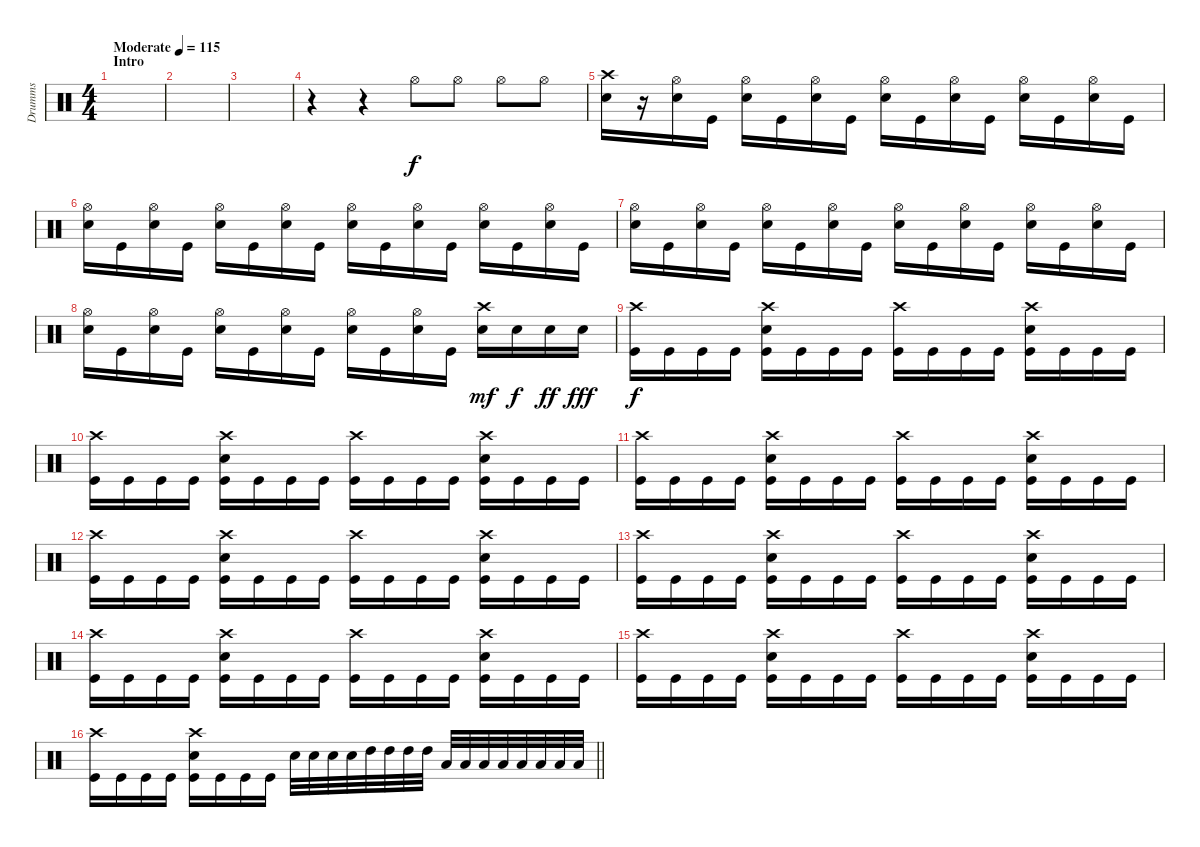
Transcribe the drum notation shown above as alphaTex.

\track ("Drumms" "Drumms") {instrument percussion}
\staff {score}
\articulation defaults
\ts (4 4)
\section ("" "Intro")
\tempo (115 "Moderate")
\clef neutral
\ks c
|
|
|
r.4 r.4 "Hi-Hat (open)".8 "Hi-Hat (open)".8 "Hi-Hat (open)".8 "Hi-Hat (open)".8 |
("Crash high (hit)" "Snare (hit) 2").16 r.16 ("Hi-Hat (open)" "Snare (hit) 2").16 "Kick (hit)".16 ("Hi-Hat (open)" "Snare (hit) 2").16 "Kick (hit)".16 ("Hi-Hat (open)" "Snare (hit) 2").16 "Kick (hit)".16 ("Hi-Hat (open)" "Snare (hit) 2").16 "Kick (hit)".16 ("Hi-Hat (open)" "Snare (hit) 2").16 "Kick (hit)".16 ("Hi-Hat (open)" "Snare (hit) 2").16 "Kick (hit)".16 ("Hi-Hat (open)" "Snare (hit) 2").16 "Kick (hit)".16 |
("Hi-Hat (open)" "Snare (hit) 2").16 "Kick (hit)".16 ("Hi-Hat (open)" "Snare (hit) 2").16 "Kick (hit)".16 ("Hi-Hat (open)" "Snare (hit) 2").16 "Kick (hit)".16 ("Hi-Hat (open)" "Snare (hit) 2").16 "Kick (hit)".16 ("Hi-Hat (open)" "Snare (hit) 2").16 "Kick (hit)".16 ("Hi-Hat (open)" "Snare (hit) 2").16 "Kick (hit)".16 ("Hi-Hat (open)" "Snare (hit) 2").16 "Kick (hit)".16 ("Hi-Hat (open)" "Snare (hit) 2").16 "Kick (hit)".16 |
("Hi-Hat (open)" "Snare (hit) 2").16 "Kick (hit)".16 ("Hi-Hat (open)" "Snare (hit) 2").16 "Kick (hit)".16 ("Hi-Hat (open)" "Snare (hit) 2").16 "Kick (hit)".16 ("Hi-Hat (open)" "Snare (hit) 2").16 "Kick (hit)".16 ("Hi-Hat (open)" "Snare (hit) 2").16 "Kick (hit)".16 ("Hi-Hat (open)" "Snare (hit) 2").16 "Kick (hit)".16 ("Hi-Hat (open)" "Snare (hit) 2").16 "Kick (hit)".16 ("Hi-Hat (open)" "Snare (hit) 2").16 "Kick (hit)".16 |
("Hi-Hat (open)" "Snare (hit) 2").16 "Kick (hit)".16 ("Hi-Hat (open)" "Snare (hit) 2").16 "Kick (hit)".16 ("Hi-Hat (open)" "Snare (hit) 2").16 "Kick (hit)".16 ("Hi-Hat (open)" "Snare (hit) 2").16 "Kick (hit)".16 ("Hi-Hat (open)" "Snare (hit) 2").16 "Kick (hit)".16 ("Hi-Hat (open)" "Snare (hit) 2").16 "Kick (hit)".16 ("Crash high (hit)" "Snare (hit) 2").16{dy mf} "Snare (hit) 2".16{dy f} "Snare (hit) 2".16{dy ff} "Snare (hit) 2".16{dy fff} |
("Crash high (hit)" "Kick (hit)").16{dy f} "Kick (hit)".16 "Kick (hit)".16 "Kick (hit)".16 ("Crash high (hit)" "Snare (hit) 2" "Kick (hit)").16 "Kick (hit)".16 "Kick (hit)".16 "Kick (hit)".16 ("Crash high (hit)" "Kick (hit)").16 "Kick (hit)".16 "Kick (hit)".16 "Kick (hit)".16 ("Crash high (hit)" "Snare (hit) 2" "Kick (hit)").16 "Kick (hit)".16 "Kick (hit)".16 "Kick (hit)".16 |
("Crash high (hit)" "Kick (hit)").16 "Kick (hit)".16 "Kick (hit)".16 "Kick (hit)".16 ("Crash high (hit)" "Snare (hit) 2" "Kick (hit)").16 "Kick (hit)".16 "Kick (hit)".16 "Kick (hit)".16 ("Crash high (hit)" "Kick (hit)").16 "Kick (hit)".16 "Kick (hit)".16 "Kick (hit)".16 ("Crash high (hit)" "Snare (hit) 2" "Kick (hit)").16 "Kick (hit)".16 "Kick (hit)".16 "Kick (hit)".16 |
("Crash high (hit)" "Kick (hit)").16 "Kick (hit)".16 "Kick (hit)".16 "Kick (hit)".16 ("Crash high (hit)" "Snare (hit) 2" "Kick (hit)").16 "Kick (hit)".16 "Kick (hit)".16 "Kick (hit)".16 ("Crash high (hit)" "Kick (hit)").16 "Kick (hit)".16 "Kick (hit)".16 "Kick (hit)".16 ("Crash high (hit)" "Snare (hit) 2" "Kick (hit)").16 "Kick (hit)".16 "Kick (hit)".16 "Kick (hit)".16 |
("Crash high (hit)" "Kick (hit)").16 "Kick (hit)".16 "Kick (hit)".16 "Kick (hit)".16 ("Crash high (hit)" "Snare (hit) 2" "Kick (hit)").16 "Kick (hit)".16 "Kick (hit)".16 "Kick (hit)".16 ("Crash high (hit)" "Kick (hit)").16 "Kick (hit)".16 "Kick (hit)".16 "Kick (hit)".16 ("Crash high (hit)" "Snare (hit) 2" "Kick (hit)").16 "Kick (hit)".16 "Kick (hit)".16 "Kick (hit)".16 |
("Crash high (hit)" "Kick (hit)").16 "Kick (hit)".16 "Kick (hit)".16 "Kick (hit)".16 ("Crash high (hit)" "Snare (hit) 2" "Kick (hit)").16 "Kick (hit)".16 "Kick (hit)".16 "Kick (hit)".16 ("Crash high (hit)" "Kick (hit)").16 "Kick (hit)".16 "Kick (hit)".16 "Kick (hit)".16 ("Crash high (hit)" "Snare (hit) 2" "Kick (hit)").16 "Kick (hit)".16 "Kick (hit)".16 "Kick (hit)".16 |
("Crash high (hit)" "Kick (hit)").16 "Kick (hit)".16 "Kick (hit)".16 "Kick (hit)".16 ("Crash high (hit)" "Snare (hit) 2" "Kick (hit)").16 "Kick (hit)".16 "Kick (hit)".16 "Kick (hit)".16 ("Crash high (hit)" "Kick (hit)").16 "Kick (hit)".16 "Kick (hit)".16 "Kick (hit)".16 ("Crash high (hit)" "Snare (hit) 2" "Kick (hit)").16 "Kick (hit)".16 "Kick (hit)".16 "Kick (hit)".16 |
("Crash high (hit)" "Kick (hit)").16 "Kick (hit)".16 "Kick (hit)".16 "Kick (hit)".16 ("Crash high (hit)" "Snare (hit) 2" "Kick (hit)").16 "Kick (hit)".16 "Kick (hit)".16 "Kick (hit)".16 ("Crash high (hit)" "Kick (hit)").16 "Kick (hit)".16 "Kick (hit)".16 "Kick (hit)".16 ("Crash high (hit)" "Snare (hit) 2" "Kick (hit)").16 "Kick (hit)".16 "Kick (hit)".16 "Kick (hit)".16 |
\barLineRight lightlight
("Crash high (hit)" "Kick (hit)").16 "Kick (hit)".16 "Kick (hit)".16 "Kick (hit)".16 ("Crash high (hit)" "Snare (hit) 2" "Kick (hit)").16 "Kick (hit)".16 "Kick (hit)".16 "Kick (hit)".16 "Snare (hit) 2".32 "Snare (hit) 2".32 "Snare (hit) 2".32 "Snare (hit) 2".32 "High Tom (hit)".32 "High Tom (hit)".32 "High Tom (hit)".32 "High Tom (hit)".32 "Low Tom (hit)".32 "Low Tom (hit)".32 "Low Tom (hit)".32 "Low Tom (hit)".32 "Low Floor Tom (hit)".32 "Low Floor Tom (hit)".32 "Low Floor Tom (hit)".32 "Low Floor Tom (hit)".32
